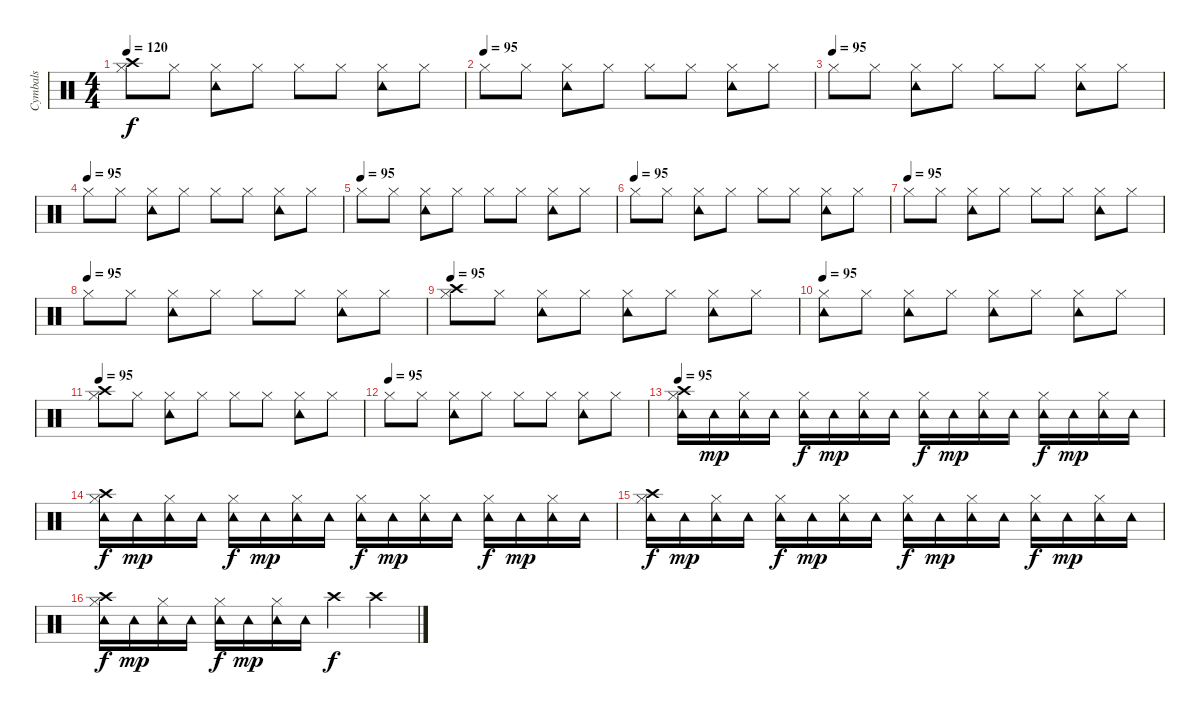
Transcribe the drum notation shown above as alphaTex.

\track ("Cymbals" "Cymbals") {instrument percussion}
\staff {score}
\articulation defaults
\ts (4 4)
\tempo 120
\tempo 95
\tempo 120
\clef neutral
\ks c
("Crash high (hit)" "Hi-Hat (closed)").8{dy f} "Hi-Hat (closed)".8 ("Tambourine (hit)" "Hi-Hat (closed)").8 "Hi-Hat (closed)".8 "Hi-Hat (closed)".8 "Hi-Hat (closed)".8 ("Tambourine (hit)" "Hi-Hat (closed)").8 "Hi-Hat (closed)".8 |
\tempo (95)
"Hi-Hat (closed)".8 "Hi-Hat (closed)".8 ("Tambourine (hit)" "Hi-Hat (closed)").8 "Hi-Hat (closed)".8 "Hi-Hat (closed)".8 "Hi-Hat (closed)".8 ("Tambourine (hit)" "Hi-Hat (closed)").8 "Hi-Hat (closed)".8 |
\tempo (95)
"Hi-Hat (closed)".8 "Hi-Hat (closed)".8 ("Tambourine (hit)" "Hi-Hat (closed)").8 "Hi-Hat (closed)".8 "Hi-Hat (closed)".8 "Hi-Hat (closed)".8 ("Tambourine (hit)" "Hi-Hat (closed)").8 "Hi-Hat (closed)".8 |
\tempo (95)
"Hi-Hat (closed)".8 "Hi-Hat (closed)".8 ("Tambourine (hit)" "Hi-Hat (closed)").8 "Hi-Hat (closed)".8 "Hi-Hat (closed)".8 "Hi-Hat (closed)".8 ("Tambourine (hit)" "Hi-Hat (closed)").8 "Hi-Hat (closed)".8 |
\tempo (95)
"Hi-Hat (closed)".8 "Hi-Hat (closed)".8 ("Tambourine (hit)" "Hi-Hat (closed)").8 "Hi-Hat (closed)".8 "Hi-Hat (closed)".8 "Hi-Hat (closed)".8 ("Tambourine (hit)" "Hi-Hat (closed)").8 "Hi-Hat (closed)".8 |
\tempo (95)
"Hi-Hat (closed)".8 "Hi-Hat (closed)".8 ("Tambourine (hit)" "Hi-Hat (closed)").8 "Hi-Hat (closed)".8 "Hi-Hat (closed)".8 "Hi-Hat (closed)".8 ("Tambourine (hit)" "Hi-Hat (closed)").8 "Hi-Hat (closed)".8 |
\tempo (95)
"Hi-Hat (closed)".8 "Hi-Hat (closed)".8 ("Tambourine (hit)" "Hi-Hat (closed)").8 "Hi-Hat (closed)".8 "Hi-Hat (closed)".8 "Hi-Hat (closed)".8 ("Tambourine (hit)" "Hi-Hat (closed)").8 "Hi-Hat (closed)".8 |
\tempo (95)
"Hi-Hat (closed)".8 "Hi-Hat (closed)".8 ("Tambourine (hit)" "Hi-Hat (closed)").8 "Hi-Hat (closed)".8 "Hi-Hat (closed)".8 "Hi-Hat (closed)".8 ("Tambourine (hit)" "Hi-Hat (closed)").8 "Hi-Hat (closed)".8 |
\tempo 95
("Crash high (hit)" "Hi-Hat (closed)").8 "Hi-Hat (closed)".8 ("Tambourine (hit)" "Hi-Hat (closed)").8 "Hi-Hat (closed)".8 ("Tambourine (hit)" "Hi-Hat (closed)").8 "Hi-Hat (closed)".8 ("Tambourine (hit)" "Hi-Hat (closed)").8 "Hi-Hat (closed)".8 |
\tempo 95
("Tambourine (hit)" "Hi-Hat (closed)").8 "Hi-Hat (closed)".8 ("Tambourine (hit)" "Hi-Hat (closed)").8 "Hi-Hat (closed)".8 ("Tambourine (hit)" "Hi-Hat (closed)").8 "Hi-Hat (closed)".8 ("Tambourine (hit)" "Hi-Hat (closed)").8 "Hi-Hat (closed)".8 |
\tempo 95
("Crash high (hit)" "Hi-Hat (closed)").8 "Hi-Hat (closed)".8 ("Tambourine (hit)" "Hi-Hat (closed)").8 "Hi-Hat (closed)".8 "Hi-Hat (closed)".8 "Hi-Hat (closed)".8 ("Tambourine (hit)" "Hi-Hat (closed)").8 "Hi-Hat (closed)".8 |
\tempo (95)
"Hi-Hat (closed)".8 "Hi-Hat (closed)".8 ("Tambourine (hit)" "Hi-Hat (closed)").8 "Hi-Hat (closed)".8 "Hi-Hat (closed)".8 "Hi-Hat (closed)".8 ("Tambourine (hit)" "Hi-Hat (closed)").8 "Hi-Hat (closed)".8 |
\tempo 95
("Crash high (hit)" "Tambourine (hit)" "Hi-Hat (closed)").16 "Tambourine (hit)".16{dy mp} ("Tambourine (hit)" "Hi-Hat (closed)").16 "Tambourine (hit)".16 ("Tambourine (hit)" "Hi-Hat (closed)").16{dy f} "Tambourine (hit)".16{dy mp} ("Tambourine (hit)" "Hi-Hat (closed)").16 "Tambourine (hit)".16 ("Tambourine (hit)" "Hi-Hat (closed)").16{dy f} "Tambourine (hit)".16{dy mp} ("Tambourine (hit)" "Hi-Hat (closed)").16 "Tambourine (hit)".16 ("Tambourine (hit)" "Hi-Hat (closed)").16{dy f} "Tambourine (hit)".16{dy mp} ("Tambourine (hit)" "Hi-Hat (closed)").16 "Tambourine (hit)".16 |
("Crash high (hit)" "Tambourine (hit)" "Hi-Hat (closed)").16{dy f} "Tambourine (hit)".16{dy mp} ("Tambourine (hit)" "Hi-Hat (closed)").16 "Tambourine (hit)".16 ("Tambourine (hit)" "Hi-Hat (closed)").16{dy f} "Tambourine (hit)".16{dy mp} ("Tambourine (hit)" "Hi-Hat (closed)").16 "Tambourine (hit)".16 ("Tambourine (hit)" "Hi-Hat (closed)").16{dy f} "Tambourine (hit)".16{dy mp} ("Tambourine (hit)" "Hi-Hat (closed)").16 "Tambourine (hit)".16 ("Tambourine (hit)" "Hi-Hat (closed)").16{dy f} "Tambourine (hit)".16{dy mp} ("Tambourine (hit)" "Hi-Hat (closed)").16 "Tambourine (hit)".16 |
("Crash high (hit)" "Tambourine (hit)" "Hi-Hat (closed)").16{dy f} "Tambourine (hit)".16{dy mp} ("Tambourine (hit)" "Hi-Hat (closed)").16 "Tambourine (hit)".16 ("Tambourine (hit)" "Hi-Hat (closed)").16{dy f} "Tambourine (hit)".16{dy mp} ("Tambourine (hit)" "Hi-Hat (closed)").16 "Tambourine (hit)".16 ("Tambourine (hit)" "Hi-Hat (closed)").16{dy f} "Tambourine (hit)".16{dy mp} ("Tambourine (hit)" "Hi-Hat (closed)").16 "Tambourine (hit)".16 ("Tambourine (hit)" "Hi-Hat (closed)").16{dy f} "Tambourine (hit)".16{dy mp} ("Tambourine (hit)" "Hi-Hat (closed)").16 "Tambourine (hit)".16 |
("Crash high (hit)" "Tambourine (hit)" "Hi-Hat (closed)").16{dy f} "Tambourine (hit)".16{dy mp} ("Tambourine (hit)" "Hi-Hat (closed)").16 "Tambourine (hit)".16 ("Tambourine (hit)" "Hi-Hat (closed)").16{dy f} "Tambourine (hit)".16{dy mp} ("Tambourine (hit)" "Hi-Hat (closed)").16 "Tambourine (hit)".16 "Crash high (hit)".4{dy f} "Crash high (hit)".4
